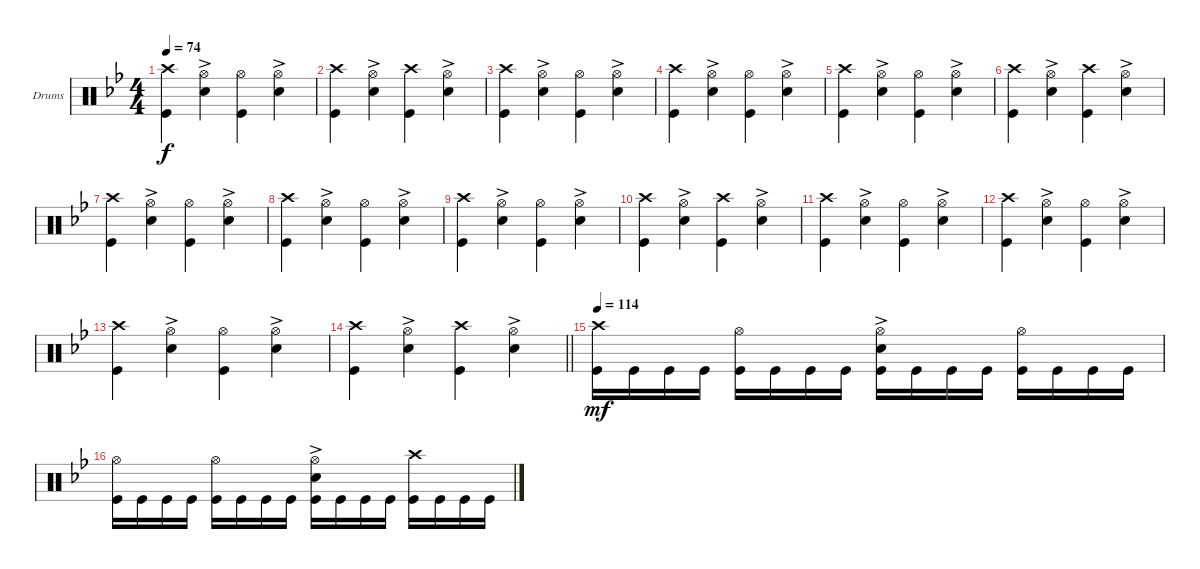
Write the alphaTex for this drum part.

\bracketExtendMode groupsimilarinstruments
\firstSystemTrackNameOrientation horizontal
\otherSystemsTrackNameOrientation horizontal
\track ("Drumkit" "Drums") {instrument percussion}
\staff {score}
\articulation defaults
\ts (4 4)
\tempo 74
\clef neutral
\ks gminor
("Kick (hit)" "Crash high (hit)").4{dy f} ("Snare (hit) 2"{ac} "Hi-Hat (open)").4 ("Hi-Hat (open)" "Kick (hit)").4 ("Snare (hit) 2"{ac} "Hi-Hat (open)").4 |
("Kick (hit)" "Crash high (hit)").4 ("Snare (hit) 2"{ac} "Hi-Hat (open)").4 ("Kick (hit)" "Crash high (hit)").4 ("Snare (hit) 2"{ac} "Hi-Hat (open)").4 |
("Kick (hit)" "Crash high (hit)").4 ("Snare (hit) 2"{ac} "Hi-Hat (open)").4 ("Hi-Hat (open)" "Kick (hit)").4 ("Snare (hit) 2"{ac} "Hi-Hat (open)").4 |
("Kick (hit)" "Crash high (hit)").4 ("Snare (hit) 2"{ac} "Hi-Hat (open)").4 ("Hi-Hat (open)" "Kick (hit)").4 ("Snare (hit) 2"{ac} "Hi-Hat (open)").4 |
("Kick (hit)" "Crash high (hit)").4 ("Snare (hit) 2"{ac} "Hi-Hat (open)").4 ("Hi-Hat (open)" "Kick (hit)").4 ("Snare (hit) 2"{ac} "Hi-Hat (open)").4 |
("Kick (hit)" "Crash high (hit)").4 ("Snare (hit) 2"{ac} "Hi-Hat (open)").4 ("Kick (hit)" "Crash high (hit)").4 ("Snare (hit) 2"{ac} "Hi-Hat (open)").4 |
("Kick (hit)" "Crash high (hit)").4 ("Snare (hit) 2"{ac} "Hi-Hat (open)").4 ("Hi-Hat (open)" "Kick (hit)").4 ("Snare (hit) 2"{ac} "Hi-Hat (open)").4 |
("Kick (hit)" "Crash high (hit)").4 ("Snare (hit) 2"{ac} "Hi-Hat (open)").4 ("Hi-Hat (open)" "Kick (hit)").4 ("Snare (hit) 2"{ac} "Hi-Hat (open)").4 |
("Kick (hit)" "Crash high (hit)").4 ("Snare (hit) 2"{ac} "Hi-Hat (open)").4 ("Hi-Hat (open)" "Kick (hit)").4 ("Snare (hit) 2"{ac} "Hi-Hat (open)").4 |
("Kick (hit)" "Crash high (hit)").4 ("Snare (hit) 2"{ac} "Hi-Hat (open)").4 ("Kick (hit)" "Crash high (hit)").4 ("Snare (hit) 2"{ac} "Hi-Hat (open)").4 |
("Kick (hit)" "Crash high (hit)").4 ("Snare (hit) 2"{ac} "Hi-Hat (open)").4 ("Hi-Hat (open)" "Kick (hit)").4 ("Snare (hit) 2"{ac} "Hi-Hat (open)").4 |
("Kick (hit)" "Crash high (hit)").4 ("Snare (hit) 2"{ac} "Hi-Hat (open)").4 ("Hi-Hat (open)" "Kick (hit)").4 ("Snare (hit) 2"{ac} "Hi-Hat (open)").4 |
("Kick (hit)" "Crash high (hit)").4 ("Snare (hit) 2"{ac} "Hi-Hat (open)").4 ("Hi-Hat (open)" "Kick (hit)").4 ("Snare (hit) 2"{ac} "Hi-Hat (open)").4 |
\barLineRight lightlight
("Kick (hit)" "Crash high (hit)").4 ("Snare (hit) 2"{ac} "Hi-Hat (open)").4 ("Kick (hit)" "Crash high (hit)").4 ("Snare (hit) 2"{ac} "Hi-Hat (open)").4 |
\tempo 114
("Kick (hit)" "Crash high (hit)").16{dy mf} "Kick (hit)".16 "Kick (hit)".16 "Kick (hit)".16 ("Kick (hit)" "Hi-Hat (open)").16 "Kick (hit)".16 "Kick (hit)".16 "Kick (hit)".16 ("Kick (hit)" "Snare (hit) 2"{ac} "Hi-Hat (open)").16 "Kick (hit)".16 "Kick (hit)".16 "Kick (hit)".16 ("Kick (hit)" "Hi-Hat (open)").16 "Kick (hit)".16 "Kick (hit)".16 "Kick (hit)".16 |
("Kick (hit)" "Hi-Hat (open)").16 "Kick (hit)".16 "Kick (hit)".16 "Kick (hit)".16 ("Kick (hit)" "Hi-Hat (open)").16 "Kick (hit)".16 "Kick (hit)".16 "Kick (hit)".16 ("Kick (hit)" "Snare (hit) 2"{ac} "Hi-Hat (open)").16 "Kick (hit)".16 "Kick (hit)".16 "Kick (hit)".16 ("Kick (hit)" "Crash high (hit)").16 "Kick (hit)".16 "Kick (hit)".16 "Kick (hit)".16
